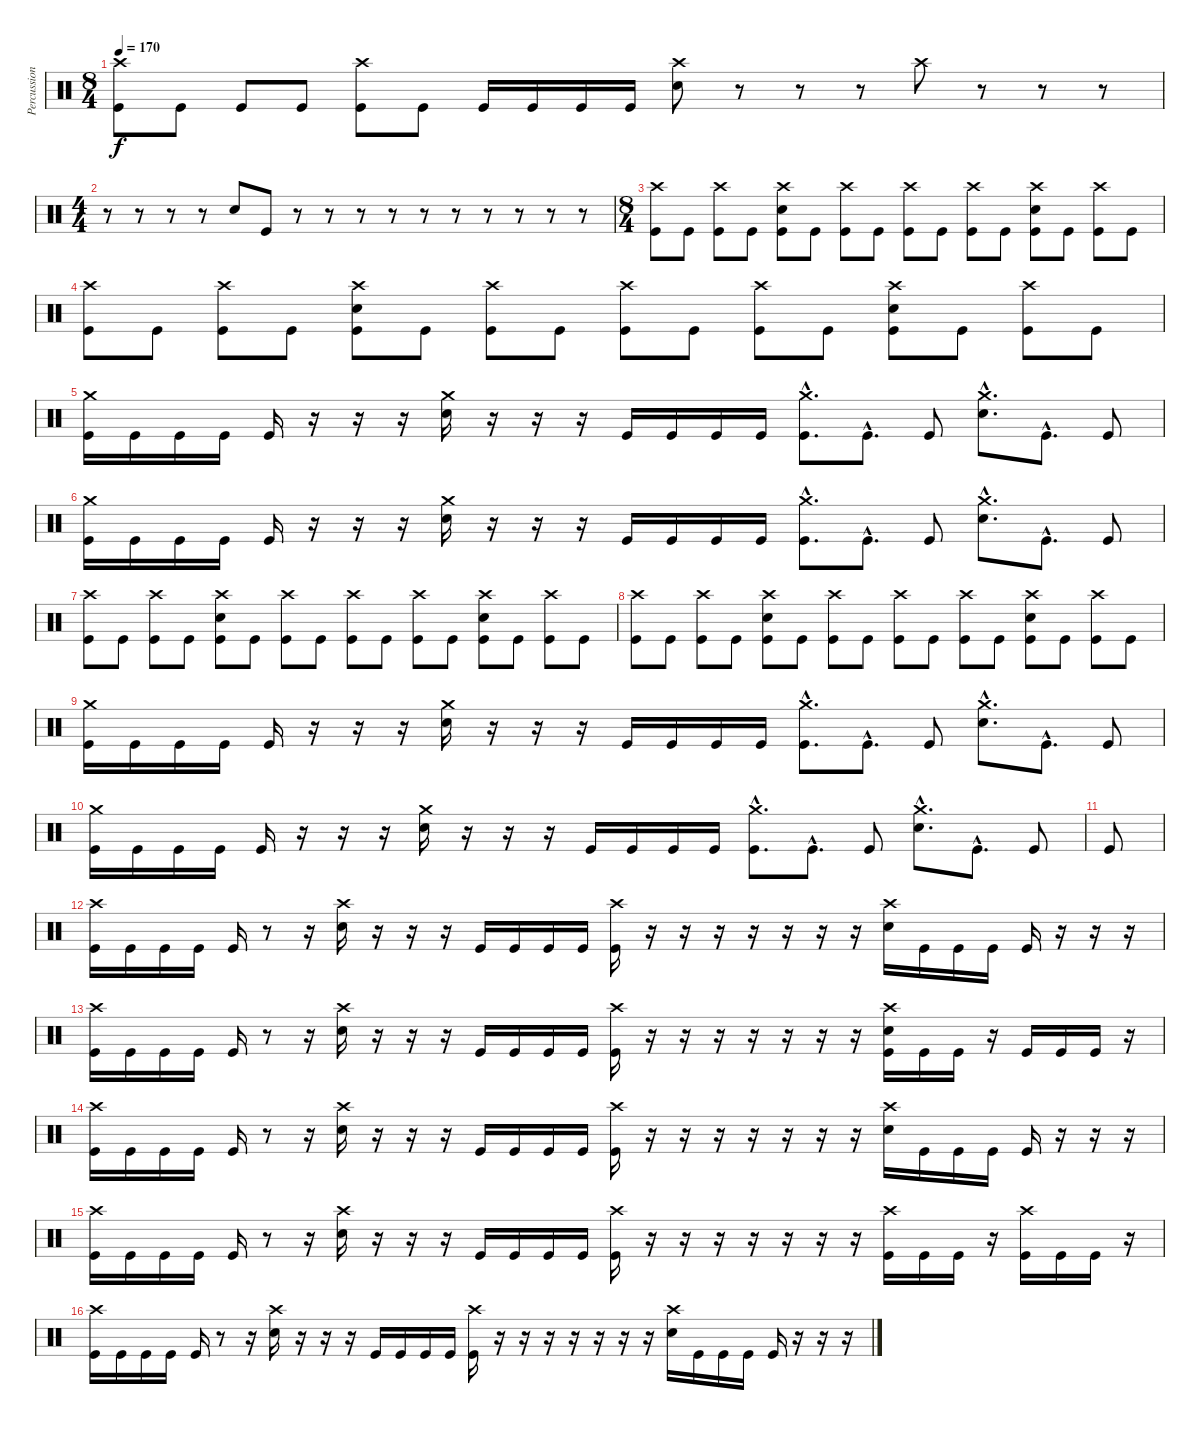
\track ("Percussion" "Percussion") {instrument percussion}
\staff {score}
\articulation defaults
\ts (8 4)
\tempo 170
\clef neutral
\ks c
("Crash high (hit)" "Kick (hit)").8{dy f} "Kick (hit)".8 "Kick (hit)".8 "Kick (hit)".8 ("Crash high (hit)" "Kick (hit)").8 "Kick (hit)".8 "Kick (hit)".16 "Kick (hit)".16 "Kick (hit)".16 "Kick (hit)".16 ("Crash high (hit)" "Snare (hit) 2").8 r.8 r.8 r.8 "Crash high (hit)".8 r.8 r.8 r.8 |
\ts (4 4)
r.8 r.8 r.8 r.8 "Snare (hit) 2".8 "Kick (hit)".8 r.8 r.8 r.8 r.8 r.8 r.8 r.8 r.8 r.8 r.8 |
\ts (8 4)
("Crash high (hit)" "Kick (hit)").8 "Kick (hit)".8 ("Crash high (hit)" "Kick (hit)").8 "Kick (hit)".8 ("Crash high (hit)" "Snare (hit) 2" "Kick (hit)").8 "Kick (hit)".8 ("Crash high (hit)" "Kick (hit)").8 "Kick (hit)".8 ("Crash high (hit)" "Kick (hit)").8 "Kick (hit)".8 ("Crash high (hit)" "Kick (hit)").8 "Kick (hit)".8 ("Crash high (hit)" "Snare (hit) 2" "Kick (hit)").8 "Kick (hit)".8 ("Crash high (hit)" "Kick (hit)").8 "Kick (hit)".8 |
("Crash high (hit)" "Kick (hit)").8 "Kick (hit)".8 ("Crash high (hit)" "Kick (hit)").8 "Kick (hit)".8 ("Crash high (hit)" "Snare (hit) 2" "Kick (hit)").8 "Kick (hit)".8 ("Crash high (hit)" "Kick (hit)").8 "Kick (hit)".8 ("Crash high (hit)" "Kick (hit)").8 "Kick (hit)".8 ("Crash high (hit)" "Kick (hit)").8 "Kick (hit)".8 ("Crash high (hit)" "Snare (hit) 2" "Kick (hit)").8 "Kick (hit)".8 ("Crash high (hit)" "Kick (hit)").8 "Kick (hit)".8 |
("Crash medium (hit)" "Kick (hit)").16 "Kick (hit)".16 "Kick (hit)".16 "Kick (hit)".16 "Kick (hit)".16 r.16 r.16 r.16 ("Crash medium (hit)" "Snare (hit) 2").16 r.16 r.16 r.16 "Kick (hit)".16 "Kick (hit)".16 "Kick (hit)".16 "Kick (hit)".16 ("Crash medium (hit)"{hac} "Kick (hit)"{hac}).8{d} "Kick (hit)"{hac}.8{d} "Kick (hit)".8 ("Crash medium (hit)"{hac} "Snare (hit) 2"{hac}).8{d} "Kick (hit)"{hac}.8{d} "Kick (hit)".8 |
("Crash medium (hit)" "Kick (hit)").16 "Kick (hit)".16 "Kick (hit)".16 "Kick (hit)".16 "Kick (hit)".16 r.16 r.16 r.16 ("Crash medium (hit)" "Snare (hit) 2").16 r.16 r.16 r.16 "Kick (hit)".16 "Kick (hit)".16 "Kick (hit)".16 "Kick (hit)".16 ("Crash medium (hit)"{hac} "Kick (hit)"{hac}).8{d} "Kick (hit)"{hac}.8{d} "Kick (hit)".8 ("Crash medium (hit)"{hac} "Snare (hit) 2"{hac}).8{d} "Kick (hit)"{hac}.8{d} "Kick (hit)".8 |
("Crash high (hit)" "Kick (hit)").8 "Kick (hit)".8 ("Crash high (hit)" "Kick (hit)").8 "Kick (hit)".8 ("Crash high (hit)" "Snare (hit) 2" "Kick (hit)").8 "Kick (hit)".8 ("Crash high (hit)" "Kick (hit)").8 "Kick (hit)".8 ("Crash high (hit)" "Kick (hit)").8 "Kick (hit)".8 ("Crash high (hit)" "Kick (hit)").8 "Kick (hit)".8 ("Crash high (hit)" "Snare (hit) 2" "Kick (hit)").8 "Kick (hit)".8 ("Crash high (hit)" "Kick (hit)").8 "Kick (hit)".8 |
("Crash high (hit)" "Kick (hit)").8 "Kick (hit)".8 ("Crash high (hit)" "Kick (hit)").8 "Kick (hit)".8 ("Crash high (hit)" "Snare (hit) 2" "Kick (hit)").8 "Kick (hit)".8 ("Crash high (hit)" "Kick (hit)").8 "Kick (hit)".8 ("Crash high (hit)" "Kick (hit)").8 "Kick (hit)".8 ("Crash high (hit)" "Kick (hit)").8 "Kick (hit)".8 ("Crash high (hit)" "Snare (hit) 2" "Kick (hit)").8 "Kick (hit)".8 ("Crash high (hit)" "Kick (hit)").8 "Kick (hit)".8 |
("Crash medium (hit)" "Kick (hit)").16 "Kick (hit)".16 "Kick (hit)".16 "Kick (hit)".16 "Kick (hit)".16 r.16 r.16 r.16 ("Crash medium (hit)" "Snare (hit) 2").16 r.16 r.16 r.16 "Kick (hit)".16 "Kick (hit)".16 "Kick (hit)".16 "Kick (hit)".16 ("Crash medium (hit)"{hac} "Kick (hit)"{hac}).8{d} "Kick (hit)"{hac}.8{d} "Kick (hit)".8 ("Crash medium (hit)"{hac} "Snare (hit) 2"{hac}).8{d} "Kick (hit)"{hac}.8{d} "Kick (hit)".8 |
("Crash medium (hit)" "Kick (hit)").16 "Kick (hit)".16 "Kick (hit)".16 "Kick (hit)".16 "Kick (hit)".16 r.16 r.16 r.16 ("Crash medium (hit)" "Snare (hit) 2").16 r.16 r.16 r.16 "Kick (hit)".16 "Kick (hit)".16 "Kick (hit)".16 "Kick (hit)".16 ("Crash medium (hit)"{hac} "Kick (hit)"{hac}).8{d} "Kick (hit)"{hac}.8{d} "Kick (hit)".8 ("Crash medium (hit)"{hac} "Snare (hit) 2"{hac}).8{d} "Kick (hit)"{hac}.8{d} "Kick (hit)".8 |
"Kick (hit)".8 |
("Crash high (hit)" "Kick (hit)").16 "Kick (hit)".16 "Kick (hit)".16 "Kick (hit)".16 "Kick (hit)".16 r.8 r.16 ("Crash high (hit)" "Snare (hit) 2").16 r.16 r.16 r.16 "Kick (hit)".16 "Kick (hit)".16 "Kick (hit)".16 "Kick (hit)".16 ("Crash high (hit)" "Kick (hit)").16 r.16 r.16 r.16 r.16 r.16 r.16 r.16 ("Crash high (hit)" "Snare (hit) 2").16 "Kick (hit)".16 "Kick (hit)".16 "Kick (hit)".16 "Kick (hit)".16 r.16 r.16 r.16 |
("Crash high (hit)" "Kick (hit)").16 "Kick (hit)".16 "Kick (hit)".16 "Kick (hit)".16 "Kick (hit)".16 r.8 r.16 ("Crash high (hit)" "Snare (hit) 2").16 r.16 r.16 r.16 "Kick (hit)".16 "Kick (hit)".16 "Kick (hit)".16 "Kick (hit)".16 ("Crash high (hit)" "Kick (hit)").16 r.16 r.16 r.16 r.16 r.16 r.16 r.16 ("Crash high (hit)" "Snare (hit) 2" "Kick (hit)").16 "Kick (hit)".16 "Kick (hit)".16 r.16 "Kick (hit)".16 "Kick (hit)".16 "Kick (hit)".16 r.16 |
("Crash high (hit)" "Kick (hit)").16 "Kick (hit)".16 "Kick (hit)".16 "Kick (hit)".16 "Kick (hit)".16 r.8 r.16 ("Crash high (hit)" "Snare (hit) 2").16 r.16 r.16 r.16 "Kick (hit)".16 "Kick (hit)".16 "Kick (hit)".16 "Kick (hit)".16 ("Crash high (hit)" "Kick (hit)").16 r.16 r.16 r.16 r.16 r.16 r.16 r.16 ("Crash high (hit)" "Snare (hit) 2").16 "Kick (hit)".16 "Kick (hit)".16 "Kick (hit)".16 "Kick (hit)".16 r.16 r.16 r.16 |
("Crash high (hit)" "Kick (hit)").16 "Kick (hit)".16 "Kick (hit)".16 "Kick (hit)".16 "Kick (hit)".16 r.8 r.16 ("Crash high (hit)" "Snare (hit) 2").16 r.16 r.16 r.16 "Kick (hit)".16 "Kick (hit)".16 "Kick (hit)".16 "Kick (hit)".16 ("Crash high (hit)" "Kick (hit)").16 r.16 r.16 r.16 r.16 r.16 r.16 r.16 ("Crash high (hit)" "Kick (hit)").16 "Kick (hit)".16 "Kick (hit)".16 r.16 ("Crash high (hit)" "Kick (hit)").16 "Kick (hit)".16 "Kick (hit)".16 r.16 |
("Crash high (hit)" "Kick (hit)").16 "Kick (hit)".16 "Kick (hit)".16 "Kick (hit)".16 "Kick (hit)".16 r.8 r.16 ("Crash high (hit)" "Snare (hit) 2").16 r.16 r.16 r.16 "Kick (hit)".16 "Kick (hit)".16 "Kick (hit)".16 "Kick (hit)".16 ("Crash high (hit)" "Kick (hit)").16 r.16 r.16 r.16 r.16 r.16 r.16 r.16 ("Crash high (hit)" "Snare (hit) 2").16 "Kick (hit)".16 "Kick (hit)".16 "Kick (hit)".16 "Kick (hit)".16 r.16 r.16 r.16
